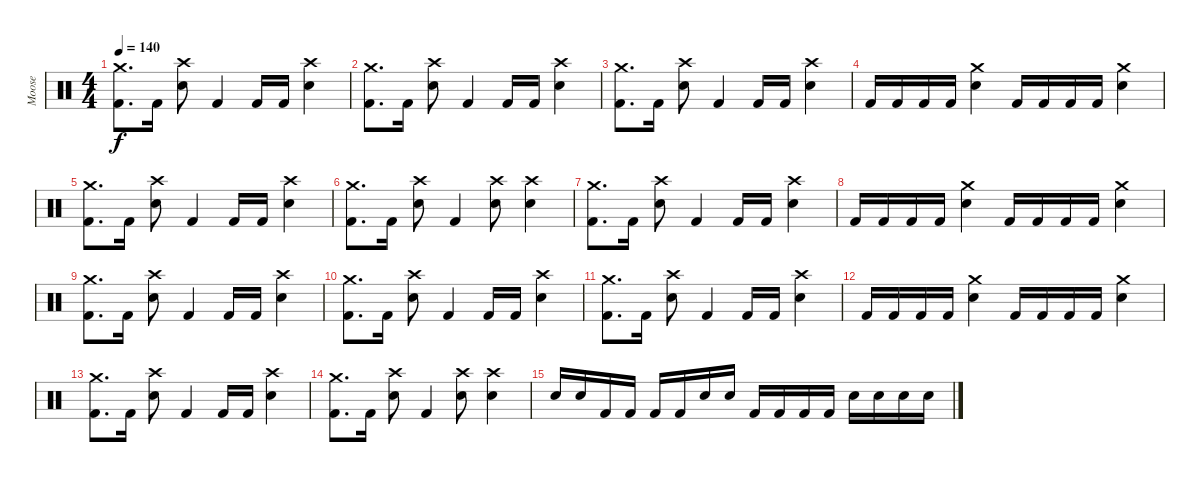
\track ("Moose" "Moose") {instrument percussion}
\staff {score}
\articulation defaults
\ts (4 4)
\tempo 140
\clef neutral
\ks c
("Crash medium (hit)" "Kick (hit) 2").8{d dy f} "Kick (hit) 2".16 ("Crash high (hit)" "Snare (hit) 2").8 "Kick (hit) 2".4 "Kick (hit) 2".16 "Kick (hit) 2".16 ("Crash high (hit)" "Snare (hit) 2").4 |
("Crash medium (hit)" "Kick (hit) 2").8{d} "Kick (hit) 2".16 ("Crash high (hit)" "Snare (hit) 2").8 "Kick (hit) 2".4 "Kick (hit) 2".16 "Kick (hit) 2".16 ("Crash high (hit)" "Snare (hit) 2").4 |
("Crash medium (hit)" "Kick (hit) 2").8{d} "Kick (hit) 2".16 ("Crash high (hit)" "Snare (hit) 2").8 "Kick (hit) 2".4 "Kick (hit) 2".16 "Kick (hit) 2".16 ("Crash high (hit)" "Snare (hit) 2").4 |
"Kick (hit) 2".16 "Kick (hit) 2".16 "Kick (hit) 2".16 "Kick (hit) 2".16 ("Crash medium (hit)" "Snare (hit) 2").4 "Kick (hit) 2".16 "Kick (hit) 2".16 "Kick (hit) 2".16 "Kick (hit) 2".16 ("Crash medium (hit)" "Snare (hit) 2").4 |
("Crash medium (hit)" "Kick (hit) 2").8{d} "Kick (hit) 2".16 ("Crash high (hit)" "Snare (hit) 2").8 "Kick (hit) 2".4 "Kick (hit) 2".16 "Kick (hit) 2".16 ("Crash high (hit)" "Snare (hit) 2").4 |
("Crash medium (hit)" "Kick (hit) 2").8{d} "Kick (hit) 2".16 ("Crash high (hit)" "Snare (hit) 2").8 "Kick (hit) 2".4 ("Crash high (hit)" "Snare (hit) 2").8 ("Crash high (hit)" "Snare (hit) 2").4 |
("Crash medium (hit)" "Kick (hit) 2").8{d} "Kick (hit) 2".16 ("Crash high (hit)" "Snare (hit) 2").8 "Kick (hit) 2".4 "Kick (hit) 2".16 "Kick (hit) 2".16 ("Crash high (hit)" "Snare (hit) 2").4 |
"Kick (hit) 2".16 "Kick (hit) 2".16 "Kick (hit) 2".16 "Kick (hit) 2".16 ("Crash medium (hit)" "Snare (hit) 2").4 "Kick (hit) 2".16 "Kick (hit) 2".16 "Kick (hit) 2".16 "Kick (hit) 2".16 ("Crash medium (hit)" "Snare (hit) 2").4 |
("Crash medium (hit)" "Kick (hit) 2").8{d} "Kick (hit) 2".16 ("Crash high (hit)" "Snare (hit) 2").8 "Kick (hit) 2".4 "Kick (hit) 2".16 "Kick (hit) 2".16 ("Crash high (hit)" "Snare (hit) 2").4 |
("Crash medium (hit)" "Kick (hit) 2").8{d} "Kick (hit) 2".16 ("Crash high (hit)" "Snare (hit) 2").8 "Kick (hit) 2".4 "Kick (hit) 2".16 "Kick (hit) 2".16 ("Crash high (hit)" "Snare (hit) 2").4 |
("Crash medium (hit)" "Kick (hit) 2").8{d} "Kick (hit) 2".16 ("Crash high (hit)" "Snare (hit) 2").8 "Kick (hit) 2".4 "Kick (hit) 2".16 "Kick (hit) 2".16 ("Crash high (hit)" "Snare (hit) 2").4 |
"Kick (hit) 2".16 "Kick (hit) 2".16 "Kick (hit) 2".16 "Kick (hit) 2".16 ("Crash medium (hit)" "Snare (hit) 2").4 "Kick (hit) 2".16 "Kick (hit) 2".16 "Kick (hit) 2".16 "Kick (hit) 2".16 ("Crash medium (hit)" "Snare (hit) 2").4 |
("Crash medium (hit)" "Kick (hit) 2").8{d} "Kick (hit) 2".16 ("Crash high (hit)" "Snare (hit) 2").8 "Kick (hit) 2".4 "Kick (hit) 2".16 "Kick (hit) 2".16 ("Crash high (hit)" "Snare (hit) 2").4 |
("Crash medium (hit)" "Kick (hit) 2").8{d} "Kick (hit) 2".16 ("Crash high (hit)" "Snare (hit) 2").8 "Kick (hit) 2".4 ("Crash high (hit)" "Snare (hit) 2").8 ("Crash high (hit)" "Snare (hit) 2").4 |
"Snare (hit) 2".16 "Snare (hit) 2".16 "Kick (hit) 2".16 "Kick (hit) 2".16 "Kick (hit) 2".16 "Kick (hit) 2".16 "Snare (hit) 2".16 "Snare (hit) 2".16 "Kick (hit) 2".16 "Kick (hit) 2".16 "Kick (hit) 2".16 "Kick (hit) 2".16 "Snare (hit) 2".16 "Snare (hit) 2".16 "Snare (hit) 2".16 "Snare (hit) 2".16
